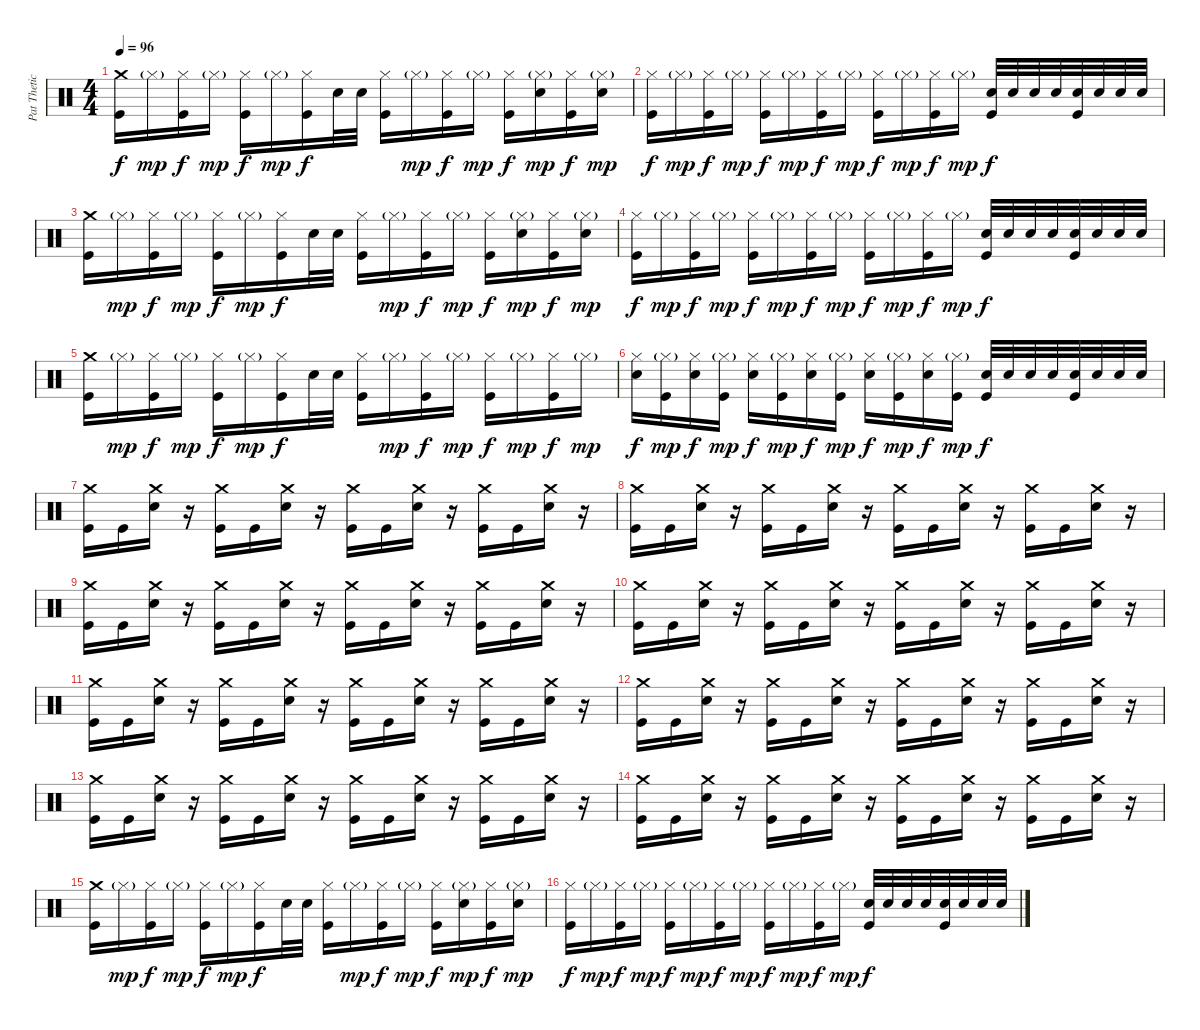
\track ("Pat Thetic" "Pat Thetic") {instrument percussion}
\staff {score}
\articulation defaults
\ts (4 4)
\tempo 96
\clef neutral
\ks c
("Crash medium (hit)" "Kick (hit)").16{dy f} "Hi-Hat (closed)"{g}.16{dy mp} ("Hi-Hat (closed)" "Kick (hit)").16{dy f} "Hi-Hat (closed)"{g}.16{dy mp} ("Hi-Hat (closed)" "Kick (hit)").16{dy f} "Hi-Hat (closed)"{g}.16{dy mp} ("Hi-Hat (closed)" "Kick (hit)").16{dy f} "Electric Snare (hit)".32 "Electric Snare (hit)".32 ("Hi-Hat (closed)" "Kick (hit)").16 "Hi-Hat (closed)"{g}.16{dy mp} ("Hi-Hat (closed)" "Kick (hit)").16{dy f} "Hi-Hat (closed)"{g}.16{dy mp} ("Hi-Hat (closed)" "Kick (hit)").16{dy f} ("Hi-Hat (closed)"{g} "Electric Snare (hit)").16{dy mp} ("Hi-Hat (closed)" "Kick (hit)").16{dy f} ("Hi-Hat (closed)"{g} "Electric Snare (hit)").16{dy mp} |
("Hi-Hat (closed)" "Kick (hit)").16{dy f} "Hi-Hat (closed)"{g}.16{dy mp} ("Hi-Hat (closed)" "Kick (hit)").16{dy f} "Hi-Hat (closed)"{g}.16{dy mp} ("Hi-Hat (closed)" "Kick (hit)").16{dy f} "Hi-Hat (closed)"{g}.16{dy mp} ("Hi-Hat (closed)" "Kick (hit)").16{dy f} "Hi-Hat (closed)"{g}.16{dy mp} ("Hi-Hat (closed)" "Kick (hit)").16{dy f} "Hi-Hat (closed)"{g}.16{dy mp} ("Hi-Hat (closed)" "Kick (hit)").16{dy f} "Hi-Hat (closed)"{g}.16{dy mp} ("Electric Snare (hit)" "Kick (hit)").32{dy f} "Electric Snare (hit)".32 "Electric Snare (hit)".32 "Electric Snare (hit)".32 ("Electric Snare (hit)" "Kick (hit)").32 "Electric Snare (hit)".32 "Electric Snare (hit)".32 "Electric Snare (hit)".32 |
("Crash medium (hit)" "Kick (hit)").16 "Hi-Hat (closed)"{g}.16{dy mp} ("Hi-Hat (closed)" "Kick (hit)").16{dy f} "Hi-Hat (closed)"{g}.16{dy mp} ("Hi-Hat (closed)" "Kick (hit)").16{dy f} "Hi-Hat (closed)"{g}.16{dy mp} ("Hi-Hat (closed)" "Kick (hit)").16{dy f} "Electric Snare (hit)".32 "Electric Snare (hit)".32 ("Hi-Hat (closed)" "Kick (hit)").16 "Hi-Hat (closed)"{g}.16{dy mp} ("Hi-Hat (closed)" "Kick (hit)").16{dy f} "Hi-Hat (closed)"{g}.16{dy mp} ("Hi-Hat (closed)" "Kick (hit)").16{dy f} ("Hi-Hat (closed)"{g} "Electric Snare (hit)").16{dy mp} ("Hi-Hat (closed)" "Kick (hit)").16{dy f} ("Hi-Hat (closed)"{g} "Electric Snare (hit)").16{dy mp} |
("Hi-Hat (closed)" "Kick (hit)").16{dy f} "Hi-Hat (closed)"{g}.16{dy mp} ("Hi-Hat (closed)" "Kick (hit)").16{dy f} "Hi-Hat (closed)"{g}.16{dy mp} ("Hi-Hat (closed)" "Kick (hit)").16{dy f} "Hi-Hat (closed)"{g}.16{dy mp} ("Hi-Hat (closed)" "Kick (hit)").16{dy f} "Hi-Hat (closed)"{g}.16{dy mp} ("Hi-Hat (closed)" "Kick (hit)").16{dy f} "Hi-Hat (closed)"{g}.16{dy mp} ("Hi-Hat (closed)" "Kick (hit)").16{dy f} "Hi-Hat (closed)"{g}.16{dy mp} ("Electric Snare (hit)" "Kick (hit)").32{dy f} "Electric Snare (hit)".32 "Electric Snare (hit)".32 "Electric Snare (hit)".32 ("Electric Snare (hit)" "Kick (hit)").32 "Electric Snare (hit)".32 "Electric Snare (hit)".32 "Electric Snare (hit)".32 |
("Crash medium (hit)" "Kick (hit)").16 "Hi-Hat (closed)"{g}.16{dy mp} ("Hi-Hat (closed)" "Kick (hit)").16{dy f} "Hi-Hat (closed)"{g}.16{dy mp} ("Hi-Hat (closed)" "Kick (hit)").16{dy f} "Hi-Hat (closed)"{g}.16{dy mp} ("Hi-Hat (closed)" "Kick (hit)").16{dy f} "Electric Snare (hit)".32 "Electric Snare (hit)".32 ("Hi-Hat (closed)" "Kick (hit)").16 "Hi-Hat (closed)"{g}.16{dy mp} ("Hi-Hat (closed)" "Kick (hit)").16{dy f} "Hi-Hat (closed)"{g}.16{dy mp} ("Hi-Hat (closed)" "Kick (hit)").16{dy f} "Hi-Hat (closed)"{g}.16{dy mp} ("Hi-Hat (closed)" "Kick (hit)").16{dy f} "Hi-Hat (closed)"{g}.16{dy mp} |
("Hi-Hat (closed)" "Electric Snare (hit)").16{dy f} ("Hi-Hat (closed)"{g} "Kick (hit)").16{dy mp} ("Hi-Hat (closed)" "Electric Snare (hit)").16{dy f} ("Hi-Hat (closed)"{g} "Kick (hit)").16{dy mp} ("Hi-Hat (closed)" "Electric Snare (hit)").16{dy f} ("Hi-Hat (closed)"{g} "Kick (hit)").16{dy mp} ("Hi-Hat (closed)" "Electric Snare (hit)").16{dy f} ("Hi-Hat (closed)"{g} "Kick (hit)").16{dy mp} ("Hi-Hat (closed)" "Electric Snare (hit)").16{dy f} ("Hi-Hat (closed)"{g} "Kick (hit)").16{dy mp} ("Hi-Hat (closed)" "Electric Snare (hit)").16{dy f} ("Hi-Hat (closed)"{g} "Kick (hit)").16{dy mp} ("Electric Snare (hit)" "Kick (hit)").32{dy f} "Electric Snare (hit)".32 "Electric Snare (hit)".32 "Electric Snare (hit)".32 ("Electric Snare (hit)" "Kick (hit)").32 "Electric Snare (hit)".32 "Electric Snare (hit)".32 "Electric Snare (hit)".32 |
("Crash medium (hit)" "Kick (hit)").16 "Kick (hit)".16 ("Crash medium (hit)" "Electric Snare (hit)").16 r.16 ("Crash medium (hit)" "Kick (hit)").16 "Kick (hit)".16 ("Crash medium (hit)" "Electric Snare (hit)").16 r.16 ("Crash medium (hit)" "Kick (hit)").16 "Kick (hit)".16 ("Crash medium (hit)" "Electric Snare (hit)").16 r.16 ("Crash medium (hit)" "Kick (hit)").16 "Kick (hit)".16 ("Crash medium (hit)" "Electric Snare (hit)").16 r.16 |
("Crash medium (hit)" "Kick (hit)").16 "Kick (hit)".16 ("Crash medium (hit)" "Electric Snare (hit)").16 r.16 ("Crash medium (hit)" "Kick (hit)").16 "Kick (hit)".16 ("Crash medium (hit)" "Electric Snare (hit)").16 r.16 ("Crash medium (hit)" "Kick (hit)").16 "Kick (hit)".16 ("Crash medium (hit)" "Electric Snare (hit)").16 r.16 ("Crash medium (hit)" "Kick (hit)").16 "Kick (hit)".16 ("Crash medium (hit)" "Electric Snare (hit)").16 r.16 |
("Crash medium (hit)" "Kick (hit)").16 "Kick (hit)".16 ("Crash medium (hit)" "Electric Snare (hit)").16 r.16 ("Crash medium (hit)" "Kick (hit)").16 "Kick (hit)".16 ("Crash medium (hit)" "Electric Snare (hit)").16 r.16 ("Crash medium (hit)" "Kick (hit)").16 "Kick (hit)".16 ("Crash medium (hit)" "Electric Snare (hit)").16 r.16 ("Crash medium (hit)" "Kick (hit)").16 "Kick (hit)".16 ("Crash medium (hit)" "Electric Snare (hit)").16 r.16 |
("Crash medium (hit)" "Kick (hit)").16 "Kick (hit)".16 ("Crash medium (hit)" "Electric Snare (hit)").16 r.16 ("Crash medium (hit)" "Kick (hit)").16 "Kick (hit)".16 ("Crash medium (hit)" "Electric Snare (hit)").16 r.16 ("Crash medium (hit)" "Kick (hit)").16 "Kick (hit)".16 ("Crash medium (hit)" "Electric Snare (hit)").16 r.16 ("Crash medium (hit)" "Kick (hit)").16 "Kick (hit)".16 ("Crash medium (hit)" "Electric Snare (hit)").16 r.16 |
("Crash medium (hit)" "Kick (hit)").16 "Kick (hit)".16 ("Crash medium (hit)" "Electric Snare (hit)").16 r.16 ("Crash medium (hit)" "Kick (hit)").16 "Kick (hit)".16 ("Crash medium (hit)" "Electric Snare (hit)").16 r.16 ("Crash medium (hit)" "Kick (hit)").16 "Kick (hit)".16 ("Crash medium (hit)" "Electric Snare (hit)").16 r.16 ("Crash medium (hit)" "Kick (hit)").16 "Kick (hit)".16 ("Crash medium (hit)" "Electric Snare (hit)").16 r.16 |
("Crash medium (hit)" "Kick (hit)").16 "Kick (hit)".16 ("Crash medium (hit)" "Electric Snare (hit)").16 r.16 ("Crash medium (hit)" "Kick (hit)").16 "Kick (hit)".16 ("Crash medium (hit)" "Electric Snare (hit)").16 r.16 ("Crash medium (hit)" "Kick (hit)").16 "Kick (hit)".16 ("Crash medium (hit)" "Electric Snare (hit)").16 r.16 ("Crash medium (hit)" "Kick (hit)").16 "Kick (hit)".16 ("Crash medium (hit)" "Electric Snare (hit)").16 r.16 |
("Crash medium (hit)" "Kick (hit)").16 "Kick (hit)".16 ("Crash medium (hit)" "Electric Snare (hit)").16 r.16 ("Crash medium (hit)" "Kick (hit)").16 "Kick (hit)".16 ("Crash medium (hit)" "Electric Snare (hit)").16 r.16 ("Crash medium (hit)" "Kick (hit)").16 "Kick (hit)".16 ("Crash medium (hit)" "Electric Snare (hit)").16 r.16 ("Crash medium (hit)" "Kick (hit)").16 "Kick (hit)".16 ("Crash medium (hit)" "Electric Snare (hit)").16 r.16 |
("Crash medium (hit)" "Kick (hit)").16 "Kick (hit)".16 ("Crash medium (hit)" "Electric Snare (hit)").16 r.16 ("Crash medium (hit)" "Kick (hit)").16 "Kick (hit)".16 ("Crash medium (hit)" "Electric Snare (hit)").16 r.16 ("Crash medium (hit)" "Kick (hit)").16 "Kick (hit)".16 ("Crash medium (hit)" "Electric Snare (hit)").16 r.16 ("Crash medium (hit)" "Kick (hit)").16 "Kick (hit)".16 ("Crash medium (hit)" "Electric Snare (hit)").16 r.16 |
("Crash medium (hit)" "Kick (hit)").16 "Hi-Hat (closed)"{g}.16{dy mp} ("Hi-Hat (closed)" "Kick (hit)").16{dy f} "Hi-Hat (closed)"{g}.16{dy mp} ("Hi-Hat (closed)" "Kick (hit)").16{dy f} "Hi-Hat (closed)"{g}.16{dy mp} ("Hi-Hat (closed)" "Kick (hit)").16{dy f} "Electric Snare (hit)".32 "Electric Snare (hit)".32 ("Hi-Hat (closed)" "Kick (hit)").16 "Hi-Hat (closed)"{g}.16{dy mp} ("Hi-Hat (closed)" "Kick (hit)").16{dy f} "Hi-Hat (closed)"{g}.16{dy mp} ("Hi-Hat (closed)" "Kick (hit)").16{dy f} ("Hi-Hat (closed)"{g} "Electric Snare (hit)").16{dy mp} ("Hi-Hat (closed)" "Kick (hit)").16{dy f} ("Hi-Hat (closed)"{g} "Electric Snare (hit)").16{dy mp} |
("Hi-Hat (closed)" "Kick (hit)").16{dy f} "Hi-Hat (closed)"{g}.16{dy mp} ("Hi-Hat (closed)" "Kick (hit)").16{dy f} "Hi-Hat (closed)"{g}.16{dy mp} ("Hi-Hat (closed)" "Kick (hit)").16{dy f} "Hi-Hat (closed)"{g}.16{dy mp} ("Hi-Hat (closed)" "Kick (hit)").16{dy f} "Hi-Hat (closed)"{g}.16{dy mp} ("Hi-Hat (closed)" "Kick (hit)").16{dy f} "Hi-Hat (closed)"{g}.16{dy mp} ("Hi-Hat (closed)" "Kick (hit)").16{dy f} "Hi-Hat (closed)"{g}.16{dy mp} ("Electric Snare (hit)" "Kick (hit)").32{dy f} "Electric Snare (hit)".32 "Electric Snare (hit)".32 "Electric Snare (hit)".32 ("Electric Snare (hit)" "Kick (hit)").32 "Electric Snare (hit)".32 "Electric Snare (hit)".32 "Electric Snare (hit)".32
